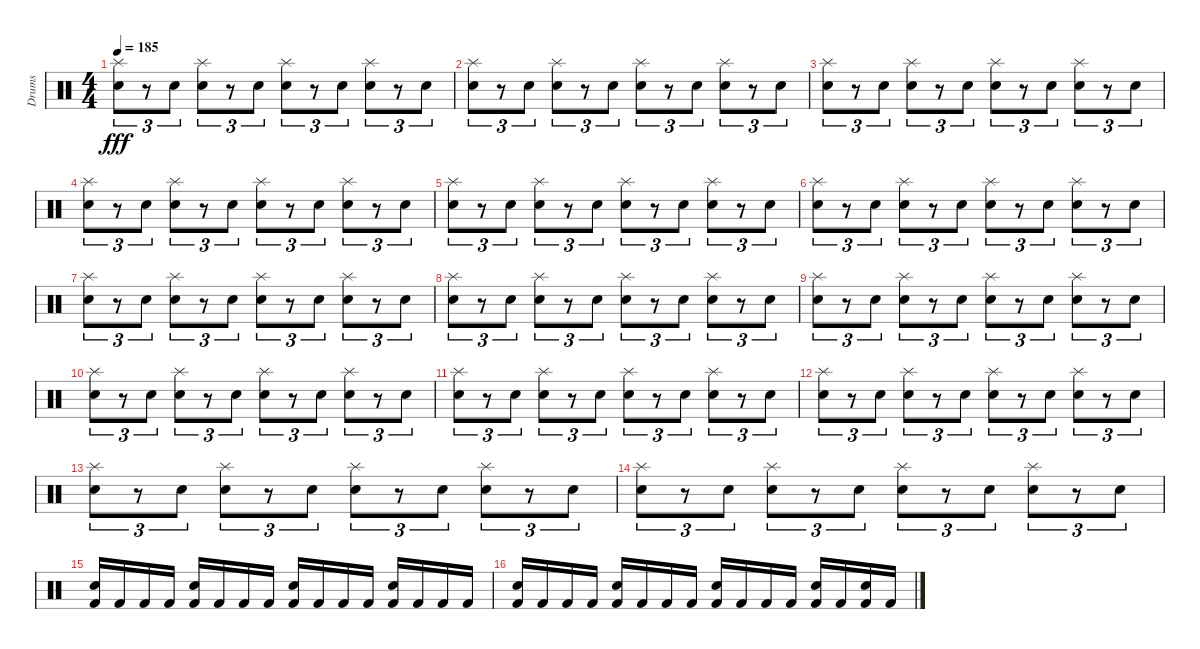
\track ("Drums" "Drums") {instrument percussion}
\staff {score}
\articulation defaults
\ts (4 4)
\tempo 185
\clef neutral
\ks c
("Splash (hit)" "Snare (hit) 2").8{tu (3 2) dy fff} r.8{tu (3 2)} "Electric Snare (hit)".8{tu (3 2)} ("Splash (hit)" "Snare (hit) 2").8{tu (3 2)} r.8{tu (3 2)} "Electric Snare (hit)".8{tu (3 2)} ("Splash (hit)" "Snare (hit) 2").8{tu (3 2)} r.8{tu (3 2)} "Electric Snare (hit)".8{tu (3 2)} ("Splash (hit)" "Snare (hit) 2").8{tu (3 2)} r.8{tu (3 2)} "Electric Snare (hit)".8{tu (3 2)} |
("Splash (hit)" "Snare (hit) 2").8{tu (3 2)} r.8{tu (3 2)} "Electric Snare (hit)".8{tu (3 2)} ("Splash (hit)" "Snare (hit) 2").8{tu (3 2)} r.8{tu (3 2)} "Electric Snare (hit)".8{tu (3 2)} ("Splash (hit)" "Snare (hit) 2").8{tu (3 2)} r.8{tu (3 2)} "Electric Snare (hit)".8{tu (3 2)} ("Splash (hit)" "Snare (hit) 2").8{tu (3 2)} r.8{tu (3 2)} "Electric Snare (hit)".8{tu (3 2)} |
("Splash (hit)" "Snare (hit) 2").8{tu (3 2)} r.8{tu (3 2)} "Electric Snare (hit)".8{tu (3 2)} ("Splash (hit)" "Snare (hit) 2").8{tu (3 2)} r.8{tu (3 2)} "Electric Snare (hit)".8{tu (3 2)} ("Splash (hit)" "Snare (hit) 2").8{tu (3 2)} r.8{tu (3 2)} "Electric Snare (hit)".8{tu (3 2)} ("Splash (hit)" "Snare (hit) 2").8{tu (3 2)} r.8{tu (3 2)} "Electric Snare (hit)".8{tu (3 2)} |
("Splash (hit)" "Snare (hit) 2").8{tu (3 2)} r.8{tu (3 2)} "Electric Snare (hit)".8{tu (3 2)} ("Splash (hit)" "Snare (hit) 2").8{tu (3 2)} r.8{tu (3 2)} "Electric Snare (hit)".8{tu (3 2)} ("Splash (hit)" "Snare (hit) 2").8{tu (3 2)} r.8{tu (3 2)} "Electric Snare (hit)".8{tu (3 2)} ("Splash (hit)" "Snare (hit) 2").8{tu (3 2)} r.8{tu (3 2)} "Electric Snare (hit)".8{tu (3 2)} |
("Splash (hit)" "Snare (hit) 2").8{tu (3 2)} r.8{tu (3 2)} "Electric Snare (hit)".8{tu (3 2)} ("Splash (hit)" "Snare (hit) 2").8{tu (3 2)} r.8{tu (3 2)} "Electric Snare (hit)".8{tu (3 2)} ("Splash (hit)" "Snare (hit) 2").8{tu (3 2)} r.8{tu (3 2)} "Electric Snare (hit)".8{tu (3 2)} ("Splash (hit)" "Snare (hit) 2").8{tu (3 2)} r.8{tu (3 2)} "Electric Snare (hit)".8{tu (3 2)} |
("Splash (hit)" "Snare (hit) 2").8{tu (3 2)} r.8{tu (3 2)} "Electric Snare (hit)".8{tu (3 2)} ("Splash (hit)" "Snare (hit) 2").8{tu (3 2)} r.8{tu (3 2)} "Electric Snare (hit)".8{tu (3 2)} ("Splash (hit)" "Snare (hit) 2").8{tu (3 2)} r.8{tu (3 2)} "Electric Snare (hit)".8{tu (3 2)} ("Splash (hit)" "Snare (hit) 2").8{tu (3 2)} r.8{tu (3 2)} "Electric Snare (hit)".8{tu (3 2)} |
("Splash (hit)" "Snare (hit) 2").8{tu (3 2)} r.8{tu (3 2)} "Electric Snare (hit)".8{tu (3 2)} ("Splash (hit)" "Snare (hit) 2").8{tu (3 2)} r.8{tu (3 2)} "Electric Snare (hit)".8{tu (3 2)} ("Splash (hit)" "Snare (hit) 2").8{tu (3 2)} r.8{tu (3 2)} "Electric Snare (hit)".8{tu (3 2)} ("Splash (hit)" "Snare (hit) 2").8{tu (3 2)} r.8{tu (3 2)} "Electric Snare (hit)".8{tu (3 2)} |
("Splash (hit)" "Snare (hit) 2").8{tu (3 2)} r.8{tu (3 2)} "Electric Snare (hit)".8{tu (3 2)} ("Splash (hit)" "Snare (hit) 2").8{tu (3 2)} r.8{tu (3 2)} "Electric Snare (hit)".8{tu (3 2)} ("Splash (hit)" "Snare (hit) 2").8{tu (3 2)} r.8{tu (3 2)} "Electric Snare (hit)".8{tu (3 2)} ("Splash (hit)" "Snare (hit) 2").8{tu (3 2)} r.8{tu (3 2)} "Electric Snare (hit)".8{tu (3 2)} |
("Splash (hit)" "Snare (hit) 2").8{tu (3 2)} r.8{tu (3 2)} "Electric Snare (hit)".8{tu (3 2)} ("Splash (hit)" "Snare (hit) 2").8{tu (3 2)} r.8{tu (3 2)} "Electric Snare (hit)".8{tu (3 2)} ("Splash (hit)" "Snare (hit) 2").8{tu (3 2)} r.8{tu (3 2)} "Electric Snare (hit)".8{tu (3 2)} ("Splash (hit)" "Snare (hit) 2").8{tu (3 2)} r.8{tu (3 2)} "Electric Snare (hit)".8{tu (3 2)} |
("Splash (hit)" "Snare (hit) 2").8{tu (3 2)} r.8{tu (3 2)} "Electric Snare (hit)".8{tu (3 2)} ("Splash (hit)" "Snare (hit) 2").8{tu (3 2)} r.8{tu (3 2)} "Electric Snare (hit)".8{tu (3 2)} ("Splash (hit)" "Snare (hit) 2").8{tu (3 2)} r.8{tu (3 2)} "Electric Snare (hit)".8{tu (3 2)} ("Splash (hit)" "Snare (hit) 2").8{tu (3 2)} r.8{tu (3 2)} "Electric Snare (hit)".8{tu (3 2)} |
("Splash (hit)" "Snare (hit) 2").8{tu (3 2)} r.8{tu (3 2)} "Electric Snare (hit)".8{tu (3 2)} ("Splash (hit)" "Snare (hit) 2").8{tu (3 2)} r.8{tu (3 2)} "Electric Snare (hit)".8{tu (3 2)} ("Splash (hit)" "Snare (hit) 2").8{tu (3 2)} r.8{tu (3 2)} "Electric Snare (hit)".8{tu (3 2)} ("Splash (hit)" "Snare (hit) 2").8{tu (3 2)} r.8{tu (3 2)} "Electric Snare (hit)".8{tu (3 2)} |
("Splash (hit)" "Snare (hit) 2").8{tu (3 2)} r.8{tu (3 2)} "Electric Snare (hit)".8{tu (3 2)} ("Splash (hit)" "Snare (hit) 2").8{tu (3 2)} r.8{tu (3 2)} "Electric Snare (hit)".8{tu (3 2)} ("Splash (hit)" "Snare (hit) 2").8{tu (3 2)} r.8{tu (3 2)} "Electric Snare (hit)".8{tu (3 2)} ("Splash (hit)" "Snare (hit) 2").8{tu (3 2)} r.8{tu (3 2)} "Electric Snare (hit)".8{tu (3 2)} |
("Splash (hit)" "Snare (hit) 2").8{tu (3 2)} r.8{tu (3 2)} "Electric Snare (hit)".8{tu (3 2)} ("Splash (hit)" "Snare (hit) 2").8{tu (3 2)} r.8{tu (3 2)} "Electric Snare (hit)".8{tu (3 2)} ("Splash (hit)" "Snare (hit) 2").8{tu (3 2)} r.8{tu (3 2)} "Electric Snare (hit)".8{tu (3 2)} ("Splash (hit)" "Snare (hit) 2").8{tu (3 2)} r.8{tu (3 2)} "Electric Snare (hit)".8{tu (3 2)} |
("Splash (hit)" "Snare (hit) 2").8{tu (3 2)} r.8{tu (3 2)} "Electric Snare (hit)".8{tu (3 2)} ("Splash (hit)" "Snare (hit) 2").8{tu (3 2)} r.8{tu (3 2)} "Electric Snare (hit)".8{tu (3 2)} ("Splash (hit)" "Snare (hit) 2").8{tu (3 2)} r.8{tu (3 2)} "Electric Snare (hit)".8{tu (3 2)} ("Splash (hit)" "Snare (hit) 2").8{tu (3 2)} r.8{tu (3 2)} "Electric Snare (hit)".8{tu (3 2)} |
("Electric Snare (hit)" "Kick (hit) 2").16 "Kick (hit) 2".16 "Kick (hit) 2".16 "Kick (hit) 2".16 ("Electric Snare (hit)" "Kick (hit) 2").16 "Kick (hit) 2".16 "Kick (hit) 2".16 "Kick (hit) 2".16 ("Electric Snare (hit)" "Kick (hit) 2").16 "Kick (hit) 2".16 "Kick (hit) 2".16 "Kick (hit) 2".16 ("Electric Snare (hit)" "Kick (hit) 2").16 "Kick (hit) 2".16 "Kick (hit) 2".16 "Kick (hit) 2".16 |
("Electric Snare (hit)" "Kick (hit) 2").16 "Kick (hit) 2".16 "Kick (hit) 2".16 "Kick (hit) 2".16 ("Electric Snare (hit)" "Kick (hit) 2").16 "Kick (hit) 2".16 "Kick (hit) 2".16 "Kick (hit) 2".16 ("Electric Snare (hit)" "Kick (hit) 2").16 "Kick (hit) 2".16 "Kick (hit) 2".16 "Kick (hit) 2".16 ("Electric Snare (hit)" "Kick (hit) 2").16 "Kick (hit) 2".16 ("Electric Snare (hit)" "Kick (hit) 2").16 "Kick (hit) 2".16
